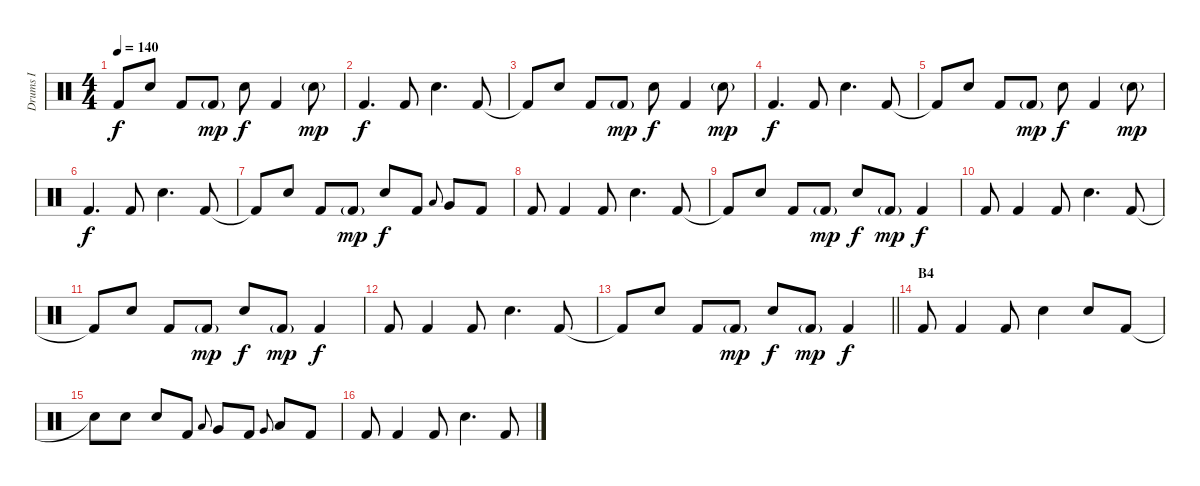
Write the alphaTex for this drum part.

\track ("Drums I" "Drums I") {instrument percussion}
\staff {score}
\articulation defaults
\ts (4 4)
\tempo 140
\clef neutral
\ks c "Kick (hit) 2"{t}.8{dy f} "Electric Snare (hit)".8 "Kick (hit) 2".8 "Kick (hit) 2"{g}.8{dy mp} "Electric Snare (hit)".8{dy f} "Kick (hit) 2".4 "Electric Snare (hit)"{g}.8{dy mp}
|
"Kick (hit) 2".4{d dy f} "Kick (hit) 2".8 "Electric Snare (hit)".4{d} "Kick (hit) 2".8 |
"Kick (hit) 2"{t}.8 "Electric Snare (hit)".8 "Kick (hit) 2".8 "Kick (hit) 2"{g}.8{dy mp} "Electric Snare (hit)".8{dy f} "Kick (hit) 2".4 "Electric Snare (hit)"{g}.8{dy mp} |
"Kick (hit) 2".4{d dy f} "Kick (hit) 2".8 "Electric Snare (hit)".4{d} "Kick (hit) 2".8 |
"Kick (hit) 2"{t}.8 "Electric Snare (hit)".8 "Kick (hit) 2".8 "Kick (hit) 2"{g}.8{dy mp} "Electric Snare (hit)".8{dy f} "Kick (hit) 2".4 "Electric Snare (hit)"{g}.8{dy mp} |
"Kick (hit) 2".4{d dy f} "Kick (hit) 2".8 "Electric Snare (hit)".4{d} "Kick (hit) 2".8 |
"Kick (hit) 2"{t}.8 "Electric Snare (hit)".8 "Kick (hit) 2".8 "Kick (hit) 2"{g}.8{dy mp} "Electric Snare (hit)".8{dy f} "Kick (hit) 2".8 "Low Tom (hit)".8{gr onbeat} "Very Low Tom (hit)".8 "Kick (hit) 2".8 |
"Kick (hit) 2".8 "Kick (hit) 2".4 "Kick (hit) 2".8 "Electric Snare (hit)".4{d} "Kick (hit) 2".8 |
"Kick (hit) 2"{t}.8 "Electric Snare (hit)".8 "Kick (hit) 2".8 "Kick (hit) 2"{g}.8{dy mp} "Electric Snare (hit)".8{dy f} "Kick (hit) 2"{g}.8{dy mp} "Kick (hit) 2".4{dy f} |
"Kick (hit) 2".8 "Kick (hit) 2".4 "Kick (hit) 2".8 "Electric Snare (hit)".4{d} "Kick (hit) 2".8 |
"Kick (hit) 2"{t}.8 "Electric Snare (hit)".8 "Kick (hit) 2".8 "Kick (hit) 2"{g}.8{dy mp} "Electric Snare (hit)".8{dy f} "Kick (hit) 2"{g}.8{dy mp} "Kick (hit) 2".4{dy f} |
"Kick (hit) 2".8 "Kick (hit) 2".4 "Kick (hit) 2".8 "Electric Snare (hit)".4{d} "Kick (hit) 2".8 |
\barLineRight lightlight "Kick (hit) 2"{t}.8 "Electric Snare (hit)".8 "Kick (hit) 2".8 "Kick (hit) 2"{g}.8{dy mp} "Electric Snare (hit)".8{dy f} "Kick (hit) 2"{g}.8{dy mp} "Kick (hit) 2".4{dy f}
|
\section ("" "B4")
"Kick (hit) 2".8 "Kick (hit) 2".4 "Kick (hit) 2".8 "Electric Snare (hit)".4 "Electric Snare (hit)".8 "Kick (hit) 2".8 |
"Snare (hit)"{t}.8 "Electric Snare (hit)".8 "Electric Snare (hit)".8 "Kick (hit) 2".8 "Low Tom (hit)".8{gr onbeat} "Very Low Tom (hit)".8 "Kick (hit) 2".8 "Very Low Tom (hit)".8{gr onbeat} "Low Floor Tom (hit)".8 "Kick (hit) 2".8 |
"Kick (hit) 2".8 "Kick (hit) 2".4 "Kick (hit) 2".8 "Electric Snare (hit)".4{d} "Kick (hit) 2".8
